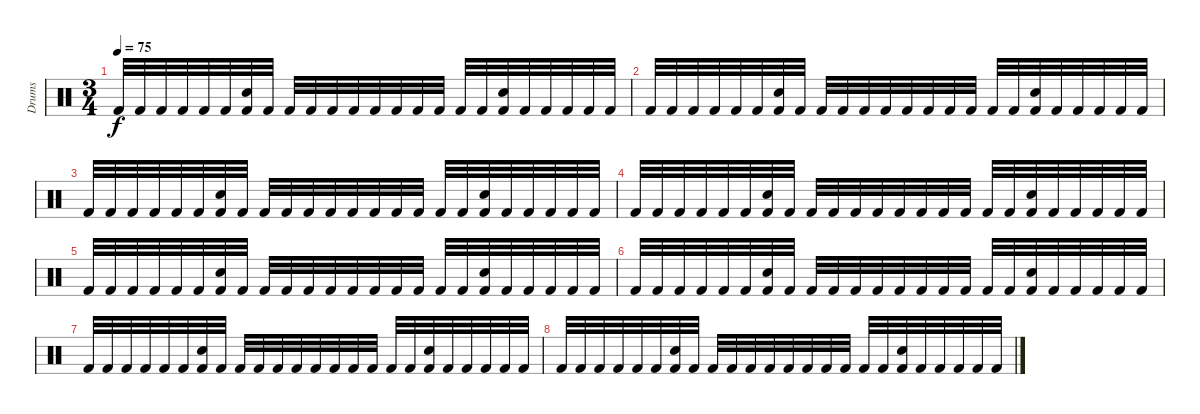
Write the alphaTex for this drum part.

\track ("Drums" "Drums") {instrument percussion}
\staff {score}
\articulation defaults
\ts (3 4)
\tempo 75
\clef neutral
\ks c "Kick (hit) 2".32{dy f} "Kick (hit) 2".32 "Kick (hit) 2".32 "Kick (hit) 2".32 "Kick (hit) 2".32 "Kick (hit) 2".32
("Snare (hit) 2" "Kick (hit) 2").32 "Kick (hit) 2".32 "Kick (hit) 2".32 "Kick (hit) 2".32 "Kick (hit) 2".32 "Kick (hit) 2".32 "Kick (hit) 2".32 "Kick (hit) 2".32 "Kick (hit) 2".32 "Kick (hit) 2".32 "Kick (hit) 2".32 "Kick (hit) 2".32 ("Snare (hit) 2" "Kick (hit) 2").32 "Kick (hit) 2".32 "Kick (hit) 2".32 "Kick (hit) 2".32 "Kick (hit) 2".32 "Kick (hit) 2".32 |
"Kick (hit) 2".32 "Kick (hit) 2".32 "Kick (hit) 2".32 "Kick (hit) 2".32 "Kick (hit) 2".32 "Kick (hit) 2".32 ("Snare (hit) 2" "Kick (hit) 2").32 "Kick (hit) 2".32 "Kick (hit) 2".32 "Kick (hit) 2".32 "Kick (hit) 2".32 "Kick (hit) 2".32 "Kick (hit) 2".32 "Kick (hit) 2".32 "Kick (hit) 2".32 "Kick (hit) 2".32 "Kick (hit) 2".32 "Kick (hit) 2".32 ("Snare (hit) 2" "Kick (hit) 2").32 "Kick (hit) 2".32 "Kick (hit) 2".32 "Kick (hit) 2".32 "Kick (hit) 2".32 "Kick (hit) 2".32 |
"Kick (hit) 2".32 "Kick (hit) 2".32 "Kick (hit) 2".32 "Kick (hit) 2".32 "Kick (hit) 2".32 "Kick (hit) 2".32 ("Snare (hit) 2" "Kick (hit) 2").32 "Kick (hit) 2".32 "Kick (hit) 2".32 "Kick (hit) 2".32 "Kick (hit) 2".32 "Kick (hit) 2".32 "Kick (hit) 2".32 "Kick (hit) 2".32 "Kick (hit) 2".32 "Kick (hit) 2".32 "Kick (hit) 2".32 "Kick (hit) 2".32 ("Snare (hit) 2" "Kick (hit) 2").32 "Kick (hit) 2".32 "Kick (hit) 2".32 "Kick (hit) 2".32 "Kick (hit) 2".32 "Kick (hit) 2".32 |
"Kick (hit) 2".32 "Kick (hit) 2".32 "Kick (hit) 2".32 "Kick (hit) 2".32 "Kick (hit) 2".32 "Kick (hit) 2".32 ("Snare (hit) 2" "Kick (hit) 2").32 "Kick (hit) 2".32 "Kick (hit) 2".32 "Kick (hit) 2".32 "Kick (hit) 2".32 "Kick (hit) 2".32 "Kick (hit) 2".32 "Kick (hit) 2".32 "Kick (hit) 2".32 "Kick (hit) 2".32 "Kick (hit) 2".32 "Kick (hit) 2".32 ("Snare (hit) 2" "Kick (hit) 2").32 "Kick (hit) 2".32 "Kick (hit) 2".32 "Kick (hit) 2".32 "Kick (hit) 2".32 "Kick (hit) 2".32 |
"Kick (hit) 2".32 "Kick (hit) 2".32 "Kick (hit) 2".32 "Kick (hit) 2".32 "Kick (hit) 2".32 "Kick (hit) 2".32 ("Snare (hit) 2" "Kick (hit) 2").32 "Kick (hit) 2".32 "Kick (hit) 2".32 "Kick (hit) 2".32 "Kick (hit) 2".32 "Kick (hit) 2".32 "Kick (hit) 2".32 "Kick (hit) 2".32 "Kick (hit) 2".32 "Kick (hit) 2".32 "Kick (hit) 2".32 "Kick (hit) 2".32 ("Snare (hit) 2" "Kick (hit) 2").32 "Kick (hit) 2".32 "Kick (hit) 2".32 "Kick (hit) 2".32 "Kick (hit) 2".32 "Kick (hit) 2".32 |
"Kick (hit) 2".32 "Kick (hit) 2".32 "Kick (hit) 2".32 "Kick (hit) 2".32 "Kick (hit) 2".32 "Kick (hit) 2".32 ("Snare (hit) 2" "Kick (hit) 2").32 "Kick (hit) 2".32 "Kick (hit) 2".32 "Kick (hit) 2".32 "Kick (hit) 2".32 "Kick (hit) 2".32 "Kick (hit) 2".32 "Kick (hit) 2".32 "Kick (hit) 2".32 "Kick (hit) 2".32 "Kick (hit) 2".32 "Kick (hit) 2".32 ("Snare (hit) 2" "Kick (hit) 2").32 "Kick (hit) 2".32 "Kick (hit) 2".32 "Kick (hit) 2".32 "Kick (hit) 2".32 "Kick (hit) 2".32 |
"Kick (hit) 2".32 "Kick (hit) 2".32 "Kick (hit) 2".32 "Kick (hit) 2".32 "Kick (hit) 2".32 "Kick (hit) 2".32 ("Snare (hit) 2" "Kick (hit) 2").32 "Kick (hit) 2".32 "Kick (hit) 2".32 "Kick (hit) 2".32 "Kick (hit) 2".32 "Kick (hit) 2".32 "Kick (hit) 2".32 "Kick (hit) 2".32 "Kick (hit) 2".32 "Kick (hit) 2".32 "Kick (hit) 2".32 "Kick (hit) 2".32 ("Snare (hit) 2" "Kick (hit) 2").32 "Kick (hit) 2".32 "Kick (hit) 2".32 "Kick (hit) 2".32 "Kick (hit) 2".32 "Kick (hit) 2".32 |
"Kick (hit) 2".32 "Kick (hit) 2".32 "Kick (hit) 2".32 "Kick (hit) 2".32 "Kick (hit) 2".32 "Kick (hit) 2".32 ("Snare (hit) 2" "Kick (hit) 2").32 "Kick (hit) 2".32 "Kick (hit) 2".32 "Kick (hit) 2".32 "Kick (hit) 2".32 "Kick (hit) 2".32 "Kick (hit) 2".32 "Kick (hit) 2".32 "Kick (hit) 2".32 "Kick (hit) 2".32 "Kick (hit) 2".32 "Kick (hit) 2".32 ("Snare (hit) 2" "Kick (hit) 2").32 "Kick (hit) 2".32 "Kick (hit) 2".32 "Kick (hit) 2".32 "Kick (hit) 2".32 "Kick (hit) 2".32
